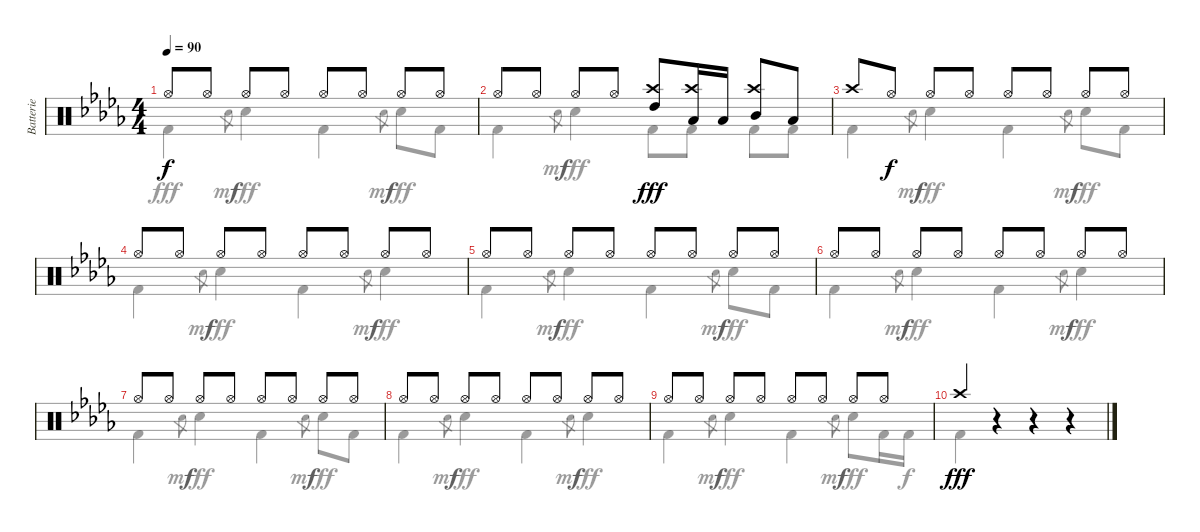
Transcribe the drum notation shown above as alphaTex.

\track ("Batterie" "Batterie") {instrument percussion}
\staff {score}
\articulation defaults
\voice
\ts (4 4)
\tempo 90
\clef neutral
\ks db "Hi-Hat (open)".8{dy f} "Hi-Hat (open)".8 "Hi-Hat (open)".8 "Hi-Hat (open)".8 "Hi-Hat (open)".8 "Hi-Hat (open)".8 "Hi-Hat (open)".8 "Hi-Hat (open)".8
|
"Hi-Hat (open)".8 "Hi-Hat (open)".8 "Hi-Hat (open)".8 "Hi-Hat (open)".8 ("High Tom (hit)" "Crash high (hit)").8{dy fff} ("Low Tom (hit)" "Crash high (hit)").16 "Low Tom (hit)".16 ("Mid Tom (hit)" "Crash high (hit)").8 "Low Tom (hit)".8 |
"Crash high (hit)".8 "Hi-Hat (open)".8{dy f} "Hi-Hat (open)".8 "Hi-Hat (open)".8 "Hi-Hat (open)".8 "Hi-Hat (open)".8 "Hi-Hat (open)".8 "Hi-Hat (open)".8 |
"Hi-Hat (open)".8 "Hi-Hat (open)".8 "Hi-Hat (open)".8 "Hi-Hat (open)".8 "Hi-Hat (open)".8 "Hi-Hat (open)".8 "Hi-Hat (open)".8 "Hi-Hat (open)".8 |
"Hi-Hat (open)".8 "Hi-Hat (open)".8 "Hi-Hat (open)".8 "Hi-Hat (open)".8 "Hi-Hat (open)".8 "Hi-Hat (open)".8 "Hi-Hat (open)".8 "Hi-Hat (open)".8 |
"Hi-Hat (open)".8 "Hi-Hat (open)".8 "Hi-Hat (open)".8 "Hi-Hat (open)".8 "Hi-Hat (open)".8 "Hi-Hat (open)".8 "Hi-Hat (open)".8 "Hi-Hat (open)".8 |
"Hi-Hat (open)".8 "Hi-Hat (open)".8 "Hi-Hat (open)".8 "Hi-Hat (open)".8 "Hi-Hat (open)".8 "Hi-Hat (open)".8 "Hi-Hat (open)".8 "Hi-Hat (open)".8 |
"Hi-Hat (open)".8 "Hi-Hat (open)".8 "Hi-Hat (open)".8 "Hi-Hat (open)".8 "Hi-Hat (open)".8 "Hi-Hat (open)".8 "Hi-Hat (open)".8 "Hi-Hat (open)".8 |
"Hi-Hat (open)".8 "Hi-Hat (open)".8 "Hi-Hat (open)".8 "Hi-Hat (open)".8 "Hi-Hat (open)".8 "Hi-Hat (open)".8 "Hi-Hat (open)".8 "Hi-Hat (open)".8 |
"Crash high (hit)".4{dy fff} r.4 r.4 r.4 |
|
|
\voice
\clef neutral
\ottava regular
\simile none
\ks db "Kick (hit) 2".4{dy fff} "Hand Clap (hit)".8{gr dy mf} "Hand Clap (hit)".4{dy fff} "Kick (hit) 2".4 "Hand Clap (hit)".8{gr dy mf} "Hand Clap (hit)".8{dy fff} "Kick (hit) 2".8
|
"Kick (hit) 2".4 "Hand Clap (hit)".8{gr dy mf} "Hand Clap (hit)".4{dy fff} "Kick (hit) 2".8 "Kick (hit) 2".8 "Kick (hit) 2".8 "Kick (hit) 2".8 |
"Kick (hit) 2".4 "Hand Clap (hit)".8{gr dy mf} "Hand Clap (hit)".4{dy fff} "Kick (hit) 2".4 "Hand Clap (hit)".8{gr dy mf} "Hand Clap (hit)".8{dy fff} "Kick (hit) 2".8 |
"Kick (hit) 2".4 "Hand Clap (hit)".8{gr dy mf} "Hand Clap (hit)".4{dy fff} "Kick (hit) 2".4 "Hand Clap (hit)".8{gr dy mf} "Hand Clap (hit)".4{dy fff} |
"Kick (hit) 2".4 "Hand Clap (hit)".8{gr dy mf} "Hand Clap (hit)".4{dy fff} "Kick (hit) 2".4 "Hand Clap (hit)".8{gr dy mf} "Hand Clap (hit)".8{dy fff} "Kick (hit) 2".8 |
"Kick (hit) 2".4 "Hand Clap (hit)".8{gr dy mf} "Hand Clap (hit)".4{dy fff} "Kick (hit) 2".4 "Hand Clap (hit)".8{gr dy mf} "Hand Clap (hit)".4{dy fff} |
"Kick (hit) 2".4 "Hand Clap (hit)".8{gr dy mf} "Hand Clap (hit)".4{dy fff} "Kick (hit) 2".4 "Hand Clap (hit)".8{gr dy mf} "Hand Clap (hit)".8{dy fff} "Kick (hit) 2".8 |
"Kick (hit) 2".4 "Hand Clap (hit)".8{gr dy mf} "Hand Clap (hit)".4{dy fff} "Kick (hit) 2".4 "Hand Clap (hit)".8{gr dy mf} "Hand Clap (hit)".4{dy fff} |
"Kick (hit) 2".4 "Hand Clap (hit)".8{gr dy mf} "Hand Clap (hit)".4{dy fff} "Kick (hit) 2".4 "Hand Clap (hit)".8{gr dy mf} "Hand Clap (hit)".8{dy fff} "Kick (hit) 2".16 "Kick (hit) 2".16{dy f} |
"Kick (hit) 2".4{dy fff} r.4 r.4 r.4 |
|
|
